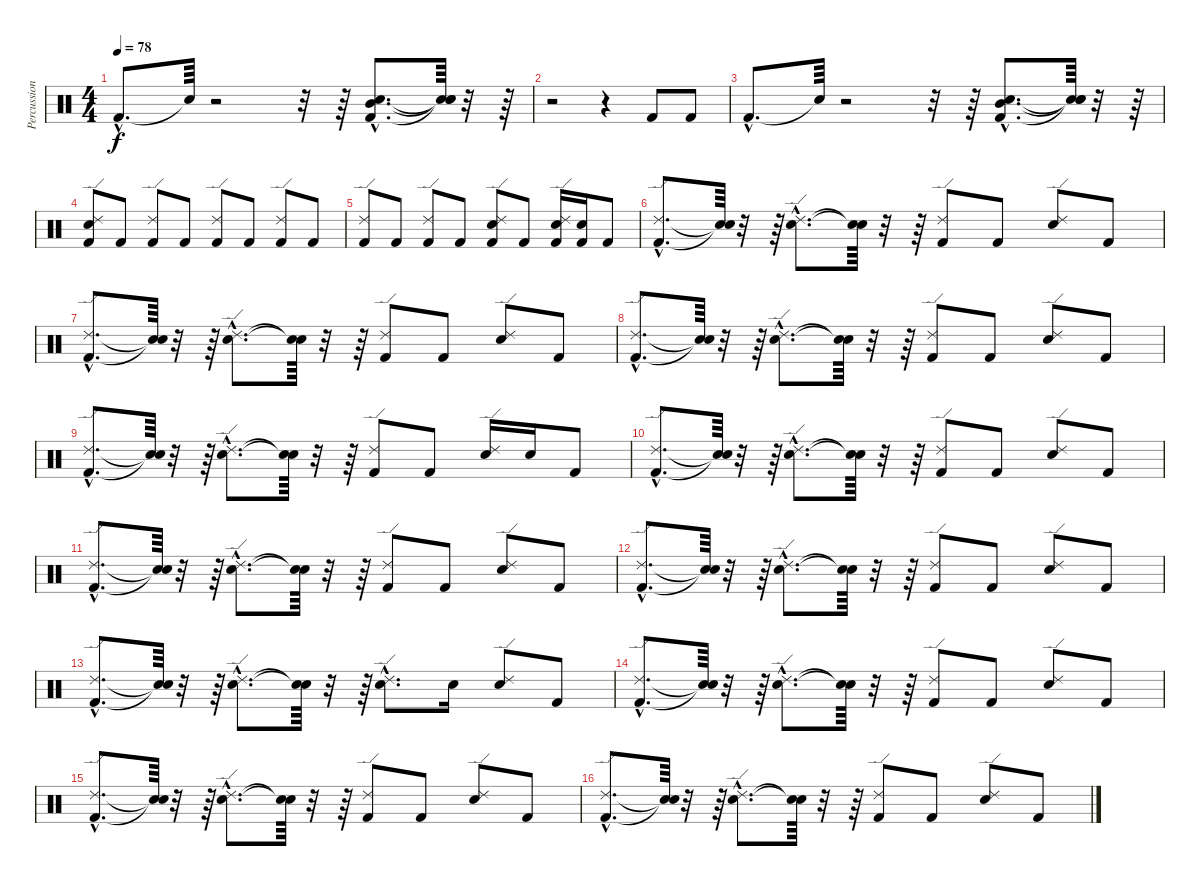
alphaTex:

\track ("Percussion" "Percussion") {instrument percussion}
\staff {score}
\articulation defaults
\ts (4 4)
\tempo 78
\clef neutral
\ks c "Kick (hit) 2"{hac}.8{d dy f} "Snare (hit)"{t}.64
r.2 r.32 r.64 ("Kick (hit) 2"{hac} "Electric Snare (hit)"{hac} "Mid Tom (hit)"{hac}).8{d} ("Snare (hit)"{t} "Snare (hit)"{t} "Snare (hit)"{t}).64 r.32 r.64 |
r.2 r.4 "Kick (hit) 2".8 "Kick (hit) 2".8 |
"Kick (hit) 2"{hac}.8{d} "Snare (hit)"{t}.64 r.2 r.32 r.64 ("Kick (hit) 2"{hac} "Electric Snare (hit)"{hac} "Mid Tom (hit)"{hac}).8{d} ("Snare (hit)"{t} "Snare (hit)"{t} "Snare (hit)"{t}).64 r.32 r.64 |
("Kick (hit) 2" "Snare (hit) 2" "Ride (edge) 2").8 "Kick (hit) 2".8 ("Kick (hit) 2" "Ride (edge) 2").8 "Kick (hit) 2".8 ("Kick (hit) 2" "Ride (edge) 2").8 "Kick (hit) 2".8 ("Kick (hit) 2" "Ride (edge) 2").8 "Kick (hit) 2".8 |
("Kick (hit) 2" "Ride (edge) 2").8 "Kick (hit) 2".8 ("Kick (hit) 2" "Ride (edge) 2").8 "Kick (hit) 2".8 ("Kick (hit) 2" "Snare (hit) 2" "Ride (edge) 2").8 "Kick (hit) 2".8 ("Kick (hit) 2" "Snare (hit) 2" "Ride (edge) 2").16 ("Kick (hit) 2" "Snare (hit) 2").16 "Kick (hit) 2".8 |
("Kick (hit) 2"{hac} "Ride (edge) 2"{hac}).8{d} ("Snare (hit)"{t} "Snare (hit)"{t}).64 r.32 r.64 ("Snare (hit) 2"{hac} "Ride (edge) 2"{hac}).8{d} ("Snare (hit)"{t} "Snare (hit)"{t}).64 r.32 r.64 ("Kick (hit) 2" "Ride (edge) 2").8 "Kick (hit) 2".8 ("Snare (hit) 2" "Ride (edge) 2").8 "Kick (hit) 2".8 |
("Kick (hit) 2"{hac} "Ride (edge) 2"{hac}).8{d} ("Snare (hit)"{t} "Snare (hit)"{t}).64 r.32 r.64 ("Snare (hit) 2"{hac} "Ride (edge) 2"{hac}).8{d} ("Snare (hit)"{t} "Snare (hit)"{t}).64 r.32 r.64 ("Kick (hit) 2" "Ride (edge) 2").8 "Kick (hit) 2".8 ("Snare (hit) 2" "Ride (edge) 2").8 "Kick (hit) 2".8 |
("Kick (hit) 2"{hac} "Ride (edge) 2"{hac}).8{d} ("Snare (hit)"{t} "Snare (hit)"{t}).64 r.32 r.64 ("Snare (hit) 2"{hac} "Ride (edge) 2"{hac}).8{d} ("Snare (hit)"{t} "Snare (hit)"{t}).64 r.32 r.64 ("Kick (hit) 2" "Ride (edge) 2").8 "Kick (hit) 2".8 ("Snare (hit) 2" "Ride (edge) 2").8 "Kick (hit) 2".8 |
("Kick (hit) 2"{hac} "Ride (edge) 2"{hac}).8{d} ("Snare (hit)"{t} "Snare (hit)"{t}).64 r.32 r.64 ("Snare (hit) 2"{hac} "Ride (edge) 2"{hac}).8{d} ("Snare (hit)"{t} "Snare (hit)"{t}).64 r.32 r.64 ("Kick (hit) 2" "Ride (edge) 2").8 "Kick (hit) 2".8 ("Snare (hit) 2" "Ride (edge) 2").16 "Snare (hit) 2".16 "Kick (hit) 2".8 |
("Kick (hit) 2"{hac} "Ride (edge) 2"{hac}).8{d} ("Snare (hit)"{t} "Snare (hit)"{t}).64 r.32 r.64 ("Snare (hit) 2"{hac} "Ride (edge) 2"{hac}).8{d} ("Snare (hit)"{t} "Snare (hit)"{t}).64 r.32 r.64 ("Kick (hit) 2" "Ride (edge) 2").8 "Kick (hit) 2".8 ("Snare (hit) 2" "Ride (edge) 2").8 "Kick (hit) 2".8 |
("Kick (hit) 2"{hac} "Ride (edge) 2"{hac}).8{d} ("Snare (hit)"{t} "Snare (hit)"{t}).64 r.32 r.64 ("Snare (hit) 2"{hac} "Ride (edge) 2"{hac}).8{d} ("Snare (hit)"{t} "Snare (hit)"{t}).64 r.32 r.64 ("Kick (hit) 2" "Ride (edge) 2").8 "Kick (hit) 2".8 ("Snare (hit) 2" "Ride (edge) 2").8 "Kick (hit) 2".8 |
("Kick (hit) 2"{hac} "Ride (edge) 2"{hac}).8{d} ("Snare (hit)"{t} "Snare (hit)"{t}).64 r.32 r.64 ("Snare (hit) 2"{hac} "Ride (edge) 2"{hac}).8{d} ("Snare (hit)"{t} "Snare (hit)"{t}).64 r.32 r.64 ("Kick (hit) 2" "Ride (edge) 2").8 "Kick (hit) 2".8 ("Snare (hit) 2" "Ride (edge) 2").8 "Kick (hit) 2".8 |
("Kick (hit) 2"{hac} "Ride (edge) 2"{hac}).8{d} ("Snare (hit)"{t} "Snare (hit)"{t}).64 r.32 r.64 ("Snare (hit) 2"{hac} "Ride (edge) 2"{hac}).8{d} ("Snare (hit)"{t} "Snare (hit)"{t}).64 r.32 r.64 ("Snare (hit) 2"{hac} "Ride (edge) 2"{hac}).8{d} "Snare (hit) 2".16 ("Snare (hit) 2" "Ride (edge) 2").8 "Kick (hit) 2".8 |
("Kick (hit) 2"{hac} "Ride (edge) 2"{hac}).8{d} ("Snare (hit)"{t} "Snare (hit)"{t}).64 r.32 r.64 ("Snare (hit) 2"{hac} "Ride (edge) 2"{hac}).8{d} ("Snare (hit)"{t} "Snare (hit)"{t}).64 r.32 r.64 ("Kick (hit) 2" "Ride (edge) 2").8 "Kick (hit) 2".8 ("Snare (hit) 2" "Ride (edge) 2").8 "Kick (hit) 2".8 |
("Kick (hit) 2"{hac} "Ride (edge) 2"{hac}).8{d} ("Snare (hit)"{t} "Snare (hit)"{t}).64 r.32 r.64 ("Snare (hit) 2"{hac} "Ride (edge) 2"{hac}).8{d} ("Snare (hit)"{t} "Snare (hit)"{t}).64 r.32 r.64 ("Kick (hit) 2" "Ride (edge) 2").8 "Kick (hit) 2".8 ("Snare (hit) 2" "Ride (edge) 2").8 "Kick (hit) 2".8 |
("Kick (hit) 2"{hac} "Ride (edge) 2"{hac}).8{d} ("Snare (hit)"{t} "Snare (hit)"{t}).64 r.32 r.64 ("Snare (hit) 2"{hac} "Ride (edge) 2"{hac}).8{d} ("Snare (hit)"{t} "Snare (hit)"{t}).64 r.32 r.64 ("Kick (hit) 2" "Ride (edge) 2").8 "Kick (hit) 2".8 ("Snare (hit) 2" "Ride (edge) 2").8 "Kick (hit) 2".8
